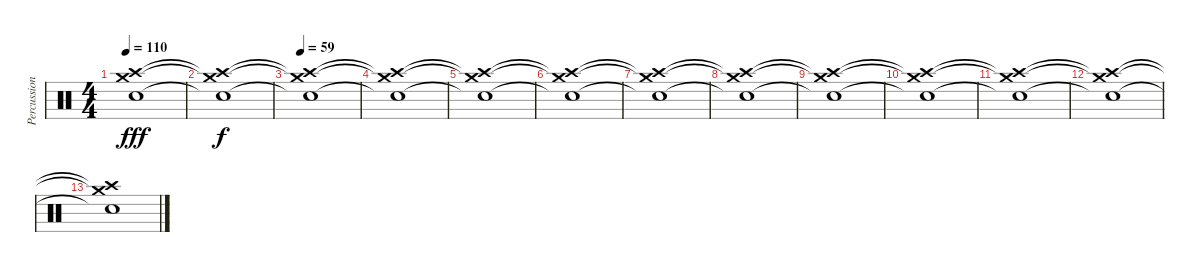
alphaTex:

\track ("Percussion" "Percussion") {instrument percussion}
\staff {score}
\articulation defaults
\ts (4 4)
\tempo 110
\clef neutral
\ks c
("Crash medium (hit)" "Crash high (hit)" "Electric Snare (hit)").1{dy fff} |
("Crash medium (hit)"{t} "Crash high (hit)"{t} "Electric Snare (hit)"{t}).1{dy f} |
\tempo 59
("Crash medium (hit)"{t} "Crash high (hit)"{t} "Electric Snare (hit)"{t}).1 |
("Crash medium (hit)"{t} "Crash high (hit)"{t} "Electric Snare (hit)"{t}).1 |
("Crash medium (hit)"{t} "Crash high (hit)"{t} "Electric Snare (hit)"{t}).1 |
("Crash medium (hit)"{t} "Crash high (hit)"{t} "Electric Snare (hit)"{t}).1 |
("Crash medium (hit)"{t} "Crash high (hit)"{t} "Electric Snare (hit)"{t}).1 |
("Crash medium (hit)"{t} "Crash high (hit)"{t} "Electric Snare (hit)"{t}).1 |
("Crash medium (hit)"{t} "Crash high (hit)"{t} "Electric Snare (hit)"{t}).1 |
("Crash medium (hit)"{t} "Crash high (hit)"{t} "Electric Snare (hit)"{t}).1 |
("Crash medium (hit)"{t} "Crash high (hit)"{t} "Electric Snare (hit)"{t}).1 |
("Crash medium (hit)"{t} "Crash high (hit)"{t} "Electric Snare (hit)"{t}).1 |
("Crash medium (hit)"{t} "Crash high (hit)"{t} "Electric Snare (hit)"{t}).1
